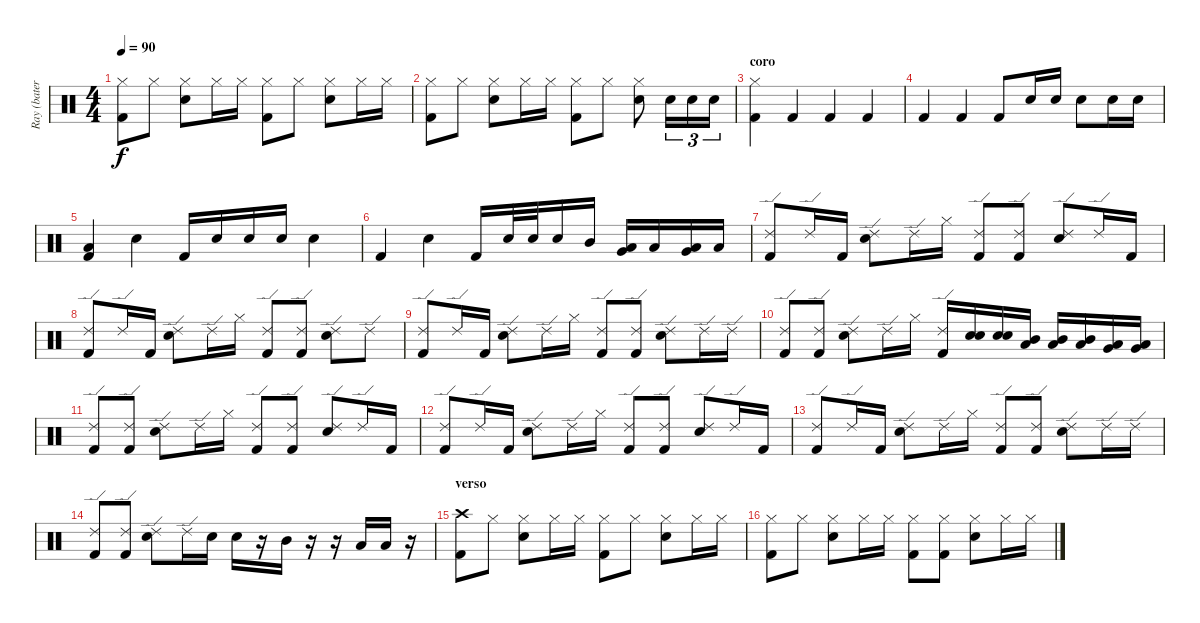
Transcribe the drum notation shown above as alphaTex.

\track ("Ray (batería)" "Ray (bater") {instrument percussion}
\staff {score}
\articulation defaults
\ts (4 4)
\tempo 90
\clef neutral
\ks c
("Hi-Hat (closed)" "Kick (hit) 2").8{dy f} "Hi-Hat (closed)".8 ("Hi-Hat (closed)" "Snare (hit) 2").8 "Hi-Hat (closed)".16 "Hi-Hat (closed)".16 ("Hi-Hat (closed)" "Kick (hit) 2").8 "Hi-Hat (closed)".8 ("Hi-Hat (closed)" "Snare (hit) 2").8 "Hi-Hat (closed)".16 "Hi-Hat (closed)".16 |
("Hi-Hat (closed)" "Kick (hit) 2").8 "Hi-Hat (closed)".8 ("Hi-Hat (closed)" "Snare (hit) 2").8 "Hi-Hat (closed)".16 "Hi-Hat (closed)".16 ("Hi-Hat (closed)" "Kick (hit) 2").8 "Hi-Hat (closed)".8 ("Hi-Hat (closed)" "Snare (hit) 2").8 "Snare (hit) 2".16{tu (3 2)} "Snare (hit) 2".16{tu (3 2)} "Snare (hit) 2".16{tu (3 2)} |
\section ("" "coro")
("Hi-Hat (closed)" "Kick (hit) 2").4 "Kick (hit) 2".4 "Kick (hit) 2".4 "Kick (hit) 2".4 |
"Kick (hit) 2".4 "Kick (hit) 2".4 "Kick (hit) 2".8 "Snare (hit) 2".16 "Snare (hit) 2".16 "Snare (hit) 2".8 "Snare (hit) 2".16 "Snare (hit) 2".16 |
("Low Floor Tom (hit)" "Kick (hit) 2").4 "Snare (hit) 2".4 "Kick (hit) 2".16 "Snare (hit) 2".16 "Snare (hit) 2".16 "Snare (hit) 2".16 "Snare (hit) 2".4 |
"Kick (hit) 2".4 "Snare (hit) 2".4 "Kick (hit) 2".16 "Snare (hit) 2".32 "Snare (hit) 2".32 "Snare (hit) 2".16 "Mid Tom (hit)".16 ("Low Tom (hit)" "Very Low Tom (hit)").16 "Low Tom (hit)".16 ("Very Low Tom (hit)" "Low Floor Tom (hit)").16 "Low Floor Tom (hit)".16 |
("Ride (edge) 2" "Kick (hit) 2").8 "Ride (edge) 2".16 "Kick (hit) 2".16 ("Ride (edge) 2" "Snare (hit) 2").8 "Ride (edge) 2".16 "Hi-Hat (closed)".16 ("Ride (edge) 2" "Kick (hit) 2").8 ("Ride (edge) 2" "Kick (hit) 2").8 ("Ride (edge) 2" "Snare (hit) 2").8 "Ride (edge) 2".16 "Kick (hit) 2".16 |
("Ride (edge) 2" "Kick (hit) 2").8 "Ride (edge) 2".16 "Kick (hit) 2".16 ("Ride (edge) 2" "Snare (hit) 2").8 "Ride (edge) 2".16 "Hi-Hat (closed)".16 ("Ride (edge) 2" "Kick (hit) 2").8 ("Ride (edge) 2" "Kick (hit) 2").8 ("Ride (edge) 2" "Snare (hit) 2").8 "Ride (edge) 2".8 |
("Ride (edge) 2" "Kick (hit) 2").8 "Ride (edge) 2".16 "Kick (hit) 2".16 ("Ride (edge) 2" "Snare (hit) 2").8 "Ride (edge) 2".16 "Hi-Hat (closed)".16 ("Ride (edge) 2" "Kick (hit) 2").8 ("Ride (edge) 2" "Kick (hit) 2").8 ("Ride (edge) 2" "Snare (hit) 2").8 "Ride (edge) 2".16 "Ride (edge) 2".16 |
("Ride (edge) 2" "Kick (hit) 2").8 ("Ride (edge) 2" "Kick (hit) 2").8 ("Ride (edge) 2" "Snare (hit) 2").8 "Ride (edge) 2".16 "Hi-Hat (closed)".16 ("Ride (edge) 2" "Kick (hit) 2").16 ("Electric Snare (hit)" "Snare (hit) 2").16 ("Electric Snare (hit)" "Snare (hit) 2").16 ("Mid Tom (hit)" "Low Tom (hit)").16 ("Mid Tom (hit)" "Low Tom (hit)").16 ("Mid Tom (hit)" "Low Tom (hit)").16 ("Low Tom (hit)" "Very Low Tom (hit)").16 ("Low Tom (hit)" "Very Low Tom (hit)").16 |
("Ride (edge) 2" "Kick (hit) 2").8 ("Ride (edge) 2" "Kick (hit) 2").8 ("Ride (edge) 2" "Snare (hit) 2").8 "Ride (edge) 2".16 "Hi-Hat (closed)".16 ("Ride (edge) 2" "Kick (hit) 2").8 ("Ride (edge) 2" "Kick (hit) 2").8 ("Ride (edge) 2" "Snare (hit) 2").8 "Ride (edge) 2".16 "Kick (hit) 2".16 |
("Ride (edge) 2" "Kick (hit) 2").8 "Ride (edge) 2".16 "Kick (hit) 2".16 ("Ride (edge) 2" "Snare (hit) 2").8 "Ride (edge) 2".16 "Hi-Hat (closed)".16 ("Ride (edge) 2" "Kick (hit) 2").8 ("Ride (edge) 2" "Kick (hit) 2").8 ("Ride (edge) 2" "Snare (hit) 2").8 "Ride (edge) 2".16 "Kick (hit) 2".16 |
("Ride (edge) 2" "Kick (hit) 2").8 "Ride (edge) 2".16 "Kick (hit) 2".16 ("Ride (edge) 2" "Snare (hit) 2").8 "Ride (edge) 2".16 "Hi-Hat (closed)".16 ("Ride (edge) 2" "Kick (hit) 2").8 ("Ride (edge) 2" "Kick (hit) 2").8 ("Ride (edge) 2" "Snare (hit) 2").8 "Ride (edge) 2".16 "Ride (edge) 2".16 |
("Ride (edge) 2" "Kick (hit) 2").8 ("Ride (edge) 2" "Kick (hit) 2").8 ("Ride (edge) 2" "Snare (hit) 2").8 "Ride (edge) 2".16 "Snare (hit) 2".16 "Snare (hit) 2".16 r.16 "Mid Tom (hit)".16 r.16 r.16 "Low Tom (hit)".16 "Low Tom (hit)".16 r.16 |
\section ("" "verso")
("Crash high (hit)" "Kick (hit) 2").8 "Hi-Hat (closed)".8 ("Hi-Hat (closed)" "Snare (hit) 2").8 "Hi-Hat (closed)".16 "Hi-Hat (closed)".16 ("Hi-Hat (closed)" "Kick (hit) 2").8 "Hi-Hat (closed)".8 ("Hi-Hat (closed)" "Snare (hit) 2").8 "Hi-Hat (closed)".16 "Hi-Hat (closed)".16 |
("Hi-Hat (closed)" "Kick (hit) 2").8 "Hi-Hat (closed)".8 ("Hi-Hat (closed)" "Snare (hit) 2").8 "Hi-Hat (closed)".16 "Hi-Hat (closed)".16 ("Hi-Hat (closed)" "Kick (hit) 2").8 ("Hi-Hat (closed)" "Kick (hit) 2").8 ("Hi-Hat (closed)" "Snare (hit) 2").8 "Hi-Hat (closed)".16 "Hi-Hat (closed)".16
